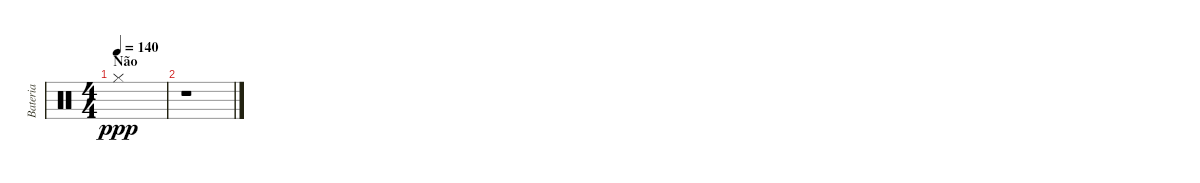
\track ("Bateria" "Bateria") {instrument percussion}
\staff {score}
\articulation defaults
\ts (4 4)
\section ("" "Não")
\tempo 140
\clef neutral
\ks c "Hi-Hat (closed)".1{dy ppp}
|
r.1
